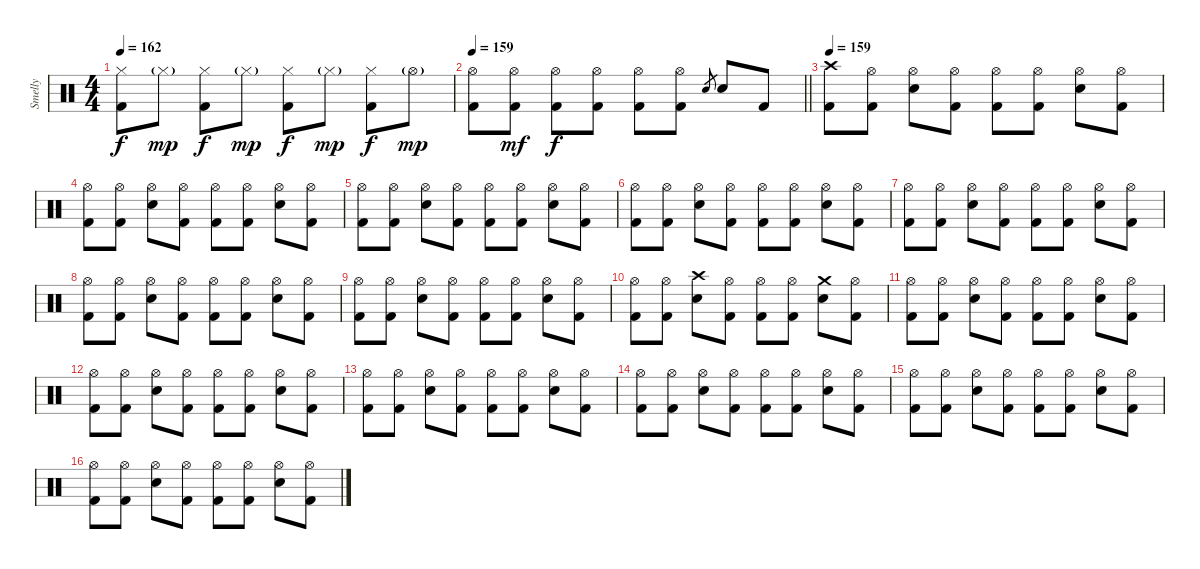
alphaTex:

\track ("Smelly" "Smelly") {instrument percussion}
\staff {score}
\articulation defaults
\ts (4 4)
\tempo 162
\clef neutral
\ks c
("Hi-Hat (closed)" "Kick (hit) 2").8{dy f} "Hi-Hat (closed)"{g}.8{dy mp} ("Hi-Hat (closed)" "Kick (hit) 2").8{dy f} "Hi-Hat (closed)"{g}.8{dy mp} ("Hi-Hat (closed)" "Kick (hit) 2").8{dy f} "Hi-Hat (closed)"{g}.8{dy mp} ("Hi-Hat (closed)" "Kick (hit) 2").8{dy f} "Hi-Hat (open)"{g}.8{dy mp} |
\tempo 159
\barLineRight lightlight
("Hi-Hat (open)" "Kick (hit) 2").8 ("Hi-Hat (open)" "Kick (hit) 2").8{dy mf} ("Hi-Hat (open)" "Kick (hit) 2").8{dy f} ("Hi-Hat (open)" "Kick (hit) 2").8 ("Hi-Hat (open)" "Kick (hit) 2").8 ("Hi-Hat (open)" "Kick (hit) 2").8 "Electric Snare (hit)".8{gr} "Electric Snare (hit)".8 "Kick (hit) 2".8 |
\section ("" "")
\tempo 159
("Crash high (hit)" "Kick (hit) 2").8 ("Hi-Hat (open)" "Kick (hit) 2").8 ("Hi-Hat (open)" "Electric Snare (hit)").8 ("Hi-Hat (open)" "Kick (hit) 2").8 ("Hi-Hat (open)" "Kick (hit) 2").8 ("Hi-Hat (open)" "Kick (hit) 2").8 ("Hi-Hat (open)" "Electric Snare (hit)").8 ("Hi-Hat (open)" "Kick (hit) 2").8 |
("Hi-Hat (open)" "Kick (hit) 2").8 ("Hi-Hat (open)" "Kick (hit) 2").8 ("Hi-Hat (open)" "Electric Snare (hit)").8 ("Hi-Hat (open)" "Kick (hit) 2").8 ("Hi-Hat (open)" "Kick (hit) 2").8 ("Hi-Hat (open)" "Kick (hit) 2").8 ("Hi-Hat (open)" "Electric Snare (hit)").8 ("Hi-Hat (open)" "Kick (hit) 2").8 |
("Hi-Hat (open)" "Kick (hit) 2").8 ("Hi-Hat (open)" "Kick (hit) 2").8 ("Hi-Hat (open)" "Electric Snare (hit)").8 ("Hi-Hat (open)" "Kick (hit) 2").8 ("Hi-Hat (open)" "Kick (hit) 2").8 ("Hi-Hat (open)" "Kick (hit) 2").8 ("Hi-Hat (open)" "Electric Snare (hit)").8 ("Hi-Hat (open)" "Kick (hit) 2").8 |
("Hi-Hat (open)" "Kick (hit) 2").8 ("Hi-Hat (open)" "Kick (hit) 2").8 ("Hi-Hat (open)" "Electric Snare (hit)").8 ("Hi-Hat (open)" "Kick (hit) 2").8 ("Hi-Hat (open)" "Kick (hit) 2").8 ("Hi-Hat (open)" "Kick (hit) 2").8 ("Hi-Hat (open)" "Electric Snare (hit)").8 ("Hi-Hat (open)" "Kick (hit) 2").8 |
("Hi-Hat (open)" "Kick (hit) 2").8 ("Hi-Hat (open)" "Kick (hit) 2").8 ("Hi-Hat (open)" "Electric Snare (hit)").8 ("Hi-Hat (open)" "Kick (hit) 2").8 ("Hi-Hat (open)" "Kick (hit) 2").8 ("Hi-Hat (open)" "Kick (hit) 2").8 ("Hi-Hat (open)" "Electric Snare (hit)").8 ("Hi-Hat (open)" "Kick (hit) 2").8 |
("Hi-Hat (open)" "Kick (hit) 2").8 ("Hi-Hat (open)" "Kick (hit) 2").8 ("Hi-Hat (open)" "Electric Snare (hit)").8 ("Hi-Hat (open)" "Kick (hit) 2").8 ("Hi-Hat (open)" "Kick (hit) 2").8 ("Hi-Hat (open)" "Kick (hit) 2").8 ("Hi-Hat (open)" "Electric Snare (hit)").8 ("Hi-Hat (open)" "Kick (hit) 2").8 |
("Hi-Hat (open)" "Kick (hit) 2").8 ("Hi-Hat (open)" "Kick (hit) 2").8 ("Hi-Hat (open)" "Electric Snare (hit)").8 ("Hi-Hat (open)" "Kick (hit) 2").8 ("Hi-Hat (open)" "Kick (hit) 2").8 ("Hi-Hat (open)" "Kick (hit) 2").8 ("Hi-Hat (open)" "Electric Snare (hit)").8 ("Hi-Hat (open)" "Kick (hit) 2").8 |
("Hi-Hat (open)" "Kick (hit) 2").8 ("Hi-Hat (open)" "Kick (hit) 2").8 ("Crash high (hit)" "Electric Snare (hit)").8 ("Hi-Hat (open)" "Kick (hit) 2").8 ("Hi-Hat (open)" "Kick (hit) 2").8 ("Hi-Hat (open)" "Kick (hit) 2").8 ("Crash medium (hit)" "Electric Snare (hit)").8 ("Hi-Hat (open)" "Kick (hit) 2").8 |
("Hi-Hat (open)" "Kick (hit) 2").8 ("Hi-Hat (open)" "Kick (hit) 2").8 ("Hi-Hat (open)" "Electric Snare (hit)").8 ("Hi-Hat (open)" "Kick (hit) 2").8 ("Hi-Hat (open)" "Kick (hit) 2").8 ("Hi-Hat (open)" "Kick (hit) 2").8 ("Hi-Hat (open)" "Electric Snare (hit)").8 ("Hi-Hat (open)" "Kick (hit) 2").8 |
("Hi-Hat (open)" "Kick (hit) 2").8 ("Hi-Hat (open)" "Kick (hit) 2").8 ("Hi-Hat (open)" "Electric Snare (hit)").8 ("Hi-Hat (open)" "Kick (hit) 2").8 ("Hi-Hat (open)" "Kick (hit) 2").8 ("Hi-Hat (open)" "Kick (hit) 2").8 ("Hi-Hat (open)" "Electric Snare (hit)").8 ("Hi-Hat (open)" "Kick (hit) 2").8 |
("Hi-Hat (open)" "Kick (hit) 2").8 ("Hi-Hat (open)" "Kick (hit) 2").8 ("Hi-Hat (open)" "Electric Snare (hit)").8 ("Hi-Hat (open)" "Kick (hit) 2").8 ("Hi-Hat (open)" "Kick (hit) 2").8 ("Hi-Hat (open)" "Kick (hit) 2").8 ("Hi-Hat (open)" "Electric Snare (hit)").8 ("Hi-Hat (open)" "Kick (hit) 2").8 |
("Hi-Hat (open)" "Kick (hit) 2").8 ("Hi-Hat (open)" "Kick (hit) 2").8 ("Hi-Hat (open)" "Electric Snare (hit)").8 ("Hi-Hat (open)" "Kick (hit) 2").8 ("Hi-Hat (open)" "Kick (hit) 2").8 ("Hi-Hat (open)" "Kick (hit) 2").8 ("Hi-Hat (open)" "Electric Snare (hit)").8 ("Hi-Hat (open)" "Kick (hit) 2").8 |
("Hi-Hat (open)" "Kick (hit) 2").8 ("Hi-Hat (open)" "Kick (hit) 2").8 ("Hi-Hat (open)" "Electric Snare (hit)").8 ("Hi-Hat (open)" "Kick (hit) 2").8 ("Hi-Hat (open)" "Kick (hit) 2").8 ("Hi-Hat (open)" "Kick (hit) 2").8 ("Hi-Hat (open)" "Electric Snare (hit)").8 ("Hi-Hat (open)" "Kick (hit) 2").8 |
("Hi-Hat (open)" "Kick (hit) 2").8 ("Hi-Hat (open)" "Kick (hit) 2").8 ("Hi-Hat (open)" "Electric Snare (hit)").8 ("Hi-Hat (open)" "Kick (hit) 2").8 ("Hi-Hat (open)" "Kick (hit) 2").8 ("Hi-Hat (open)" "Kick (hit) 2").8 ("Hi-Hat (open)" "Electric Snare (hit)").8 ("Hi-Hat (open)" "Kick (hit) 2").8
